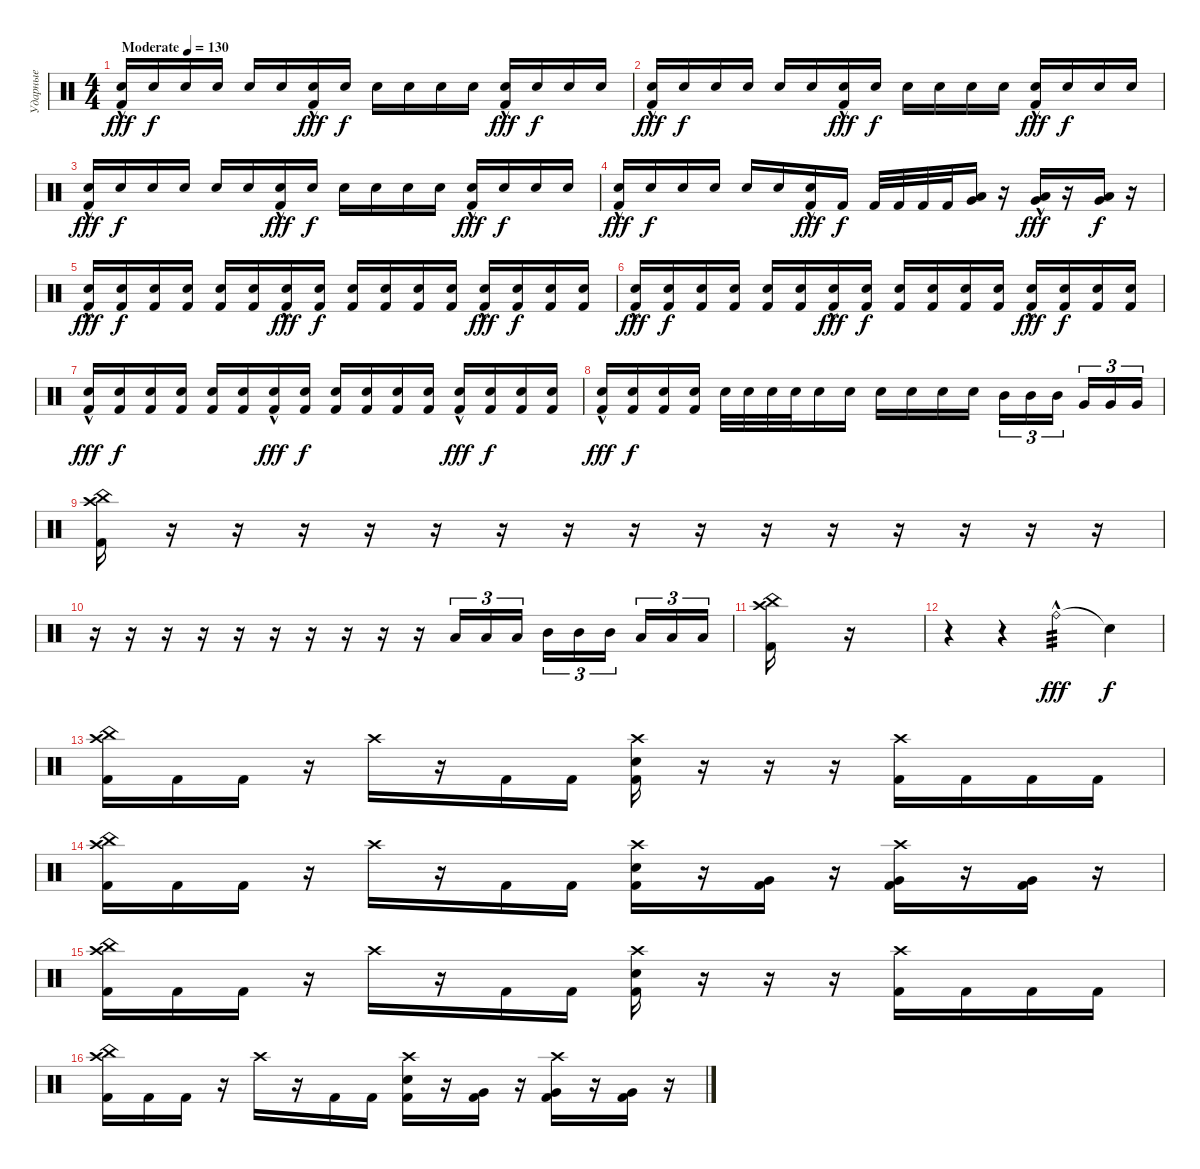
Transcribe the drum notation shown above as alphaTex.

\track ("Ударные" "Ударные") {instrument percussion}
\staff {score}
\articulation defaults
\ts (4 4)
\tempo (130 "Moderate")
\clef neutral
\ks c
("Snare (hit) 2"{hac} "Kick (hit) 2").16{dy fff} "Snare (hit) 2".16{dy f} "Snare (hit) 2".16 "Snare (hit) 2".16 "Snare (hit) 2".16 "Snare (hit) 2".16 ("Snare (hit) 2"{hac} "Kick (hit) 2").16{dy fff} "Snare (hit) 2".16{dy f} "Snare (hit) 2".16 "Snare (hit) 2".16 "Snare (hit) 2".16 "Snare (hit) 2".16 ("Snare (hit) 2"{hac} "Kick (hit) 2").16{dy fff} "Snare (hit) 2".16{dy f} "Snare (hit) 2".16 "Snare (hit) 2".16 |
("Snare (hit) 2"{hac} "Kick (hit) 2").16{dy fff} "Snare (hit) 2".16{dy f} "Snare (hit) 2".16 "Snare (hit) 2".16 "Snare (hit) 2".16 "Snare (hit) 2".16 ("Snare (hit) 2"{hac} "Kick (hit) 2").16{dy fff} "Snare (hit) 2".16{dy f} "Snare (hit) 2".16 "Snare (hit) 2".16 "Snare (hit) 2".16 "Snare (hit) 2".16 ("Snare (hit) 2"{hac} "Kick (hit) 2").16{dy fff} "Snare (hit) 2".16{dy f} "Snare (hit) 2".16 "Snare (hit) 2".16 |
("Snare (hit) 2"{hac} "Kick (hit) 2").16{dy fff} "Snare (hit) 2".16{dy f} "Snare (hit) 2".16 "Snare (hit) 2".16 "Snare (hit) 2".16 "Snare (hit) 2".16 ("Snare (hit) 2"{hac} "Kick (hit) 2").16{dy fff} "Snare (hit) 2".16{dy f} "Snare (hit) 2".16 "Snare (hit) 2".16 "Snare (hit) 2".16 "Snare (hit) 2".16 ("Snare (hit) 2"{hac} "Kick (hit) 2").16{dy fff} "Snare (hit) 2".16{dy f} "Snare (hit) 2".16 "Snare (hit) 2".16 |
("Snare (hit) 2"{hac} "Kick (hit) 2").16{dy fff} "Snare (hit) 2".16{dy f} "Snare (hit) 2".16 "Snare (hit) 2".16 "Snare (hit) 2".16 "Snare (hit) 2".16 ("Snare (hit) 2"{hac} "Kick (hit) 2").16{dy fff} "Kick (hit) 2".16{dy f} "Kick (hit) 2".32 "Kick (hit) 2".32 "Kick (hit) 2".32 "Kick (hit) 2".32 ("Low Tom (hit)" "Very Low Tom (hit)").16 r.16 ("Low Tom (hit)"{hac} "Very Low Tom (hit)").16{dy fff} r.16 ("Low Tom (hit)" "Very Low Tom (hit)").16{dy f} r.16 |
("Snare (hit) 2"{hac} "Kick (hit) 2").16{dy fff} ("Snare (hit) 2" "Kick (hit) 2").16{dy f} ("Snare (hit) 2" "Kick (hit) 2").16 ("Snare (hit) 2" "Kick (hit) 2").16 ("Snare (hit) 2" "Kick (hit) 2").16 ("Snare (hit) 2" "Kick (hit) 2").16 ("Snare (hit) 2"{hac} "Kick (hit) 2").16{dy fff} ("Snare (hit) 2" "Kick (hit) 2").16{dy f} ("Snare (hit) 2" "Kick (hit) 2").16 ("Snare (hit) 2" "Kick (hit) 2").16 ("Snare (hit) 2" "Kick (hit) 2").16 ("Snare (hit) 2" "Kick (hit) 2").16 ("Snare (hit) 2"{hac} "Kick (hit) 2").16{dy fff} ("Snare (hit) 2" "Kick (hit) 2").16{dy f} ("Snare (hit) 2" "Kick (hit) 2").16 ("Snare (hit) 2" "Kick (hit) 2").16 |
("Snare (hit) 2"{hac} "Kick (hit) 2").16{dy fff} ("Snare (hit) 2" "Kick (hit) 2").16{dy f} ("Snare (hit) 2" "Kick (hit) 2").16 ("Snare (hit) 2" "Kick (hit) 2").16 ("Snare (hit) 2" "Kick (hit) 2").16 ("Snare (hit) 2" "Kick (hit) 2").16 ("Snare (hit) 2"{hac} "Kick (hit) 2").16{dy fff} ("Snare (hit) 2" "Kick (hit) 2").16{dy f} ("Snare (hit) 2" "Kick (hit) 2").16 ("Snare (hit) 2" "Kick (hit) 2").16 ("Snare (hit) 2" "Kick (hit) 2").16 ("Snare (hit) 2" "Kick (hit) 2").16 ("Snare (hit) 2"{hac} "Kick (hit) 2").16{dy fff} ("Snare (hit) 2" "Kick (hit) 2").16{dy f} ("Snare (hit) 2" "Kick (hit) 2").16 ("Snare (hit) 2" "Kick (hit) 2").16 |
("Snare (hit) 2"{hac} "Kick (hit) 2").16{dy fff} ("Snare (hit) 2" "Kick (hit) 2").16{dy f} ("Snare (hit) 2" "Kick (hit) 2").16 ("Snare (hit) 2" "Kick (hit) 2").16 ("Snare (hit) 2" "Kick (hit) 2").16 ("Snare (hit) 2" "Kick (hit) 2").16 ("Snare (hit) 2"{hac} "Kick (hit) 2").16{dy fff} ("Snare (hit) 2" "Kick (hit) 2").16{dy f} ("Snare (hit) 2" "Kick (hit) 2").16 ("Snare (hit) 2" "Kick (hit) 2").16 ("Snare (hit) 2" "Kick (hit) 2").16 ("Snare (hit) 2" "Kick (hit) 2").16 ("Snare (hit) 2"{hac} "Kick (hit) 2").16{dy fff} ("Snare (hit) 2" "Kick (hit) 2").16{dy f} ("Snare (hit) 2" "Kick (hit) 2").16 ("Snare (hit) 2" "Kick (hit) 2").16 |
("Snare (hit) 2"{hac} "Kick (hit) 2").16{dy fff} ("Snare (hit) 2" "Kick (hit) 2").16{dy f} ("Snare (hit) 2" "Kick (hit) 2").16 ("Snare (hit) 2" "Kick (hit) 2").16 "Snare (hit) 2".32 "Snare (hit) 2".32 "Snare (hit) 2".32 "Snare (hit) 2".32 "Snare (hit) 2".16 "Snare (hit) 2".16 "Snare (hit) 2".16 "Snare (hit) 2".16 "Snare (hit) 2".16 "Snare (hit) 2".16 "Mid Tom (hit)".16{tu (3 2)} "Mid Tom (hit)".16{tu (3 2)} "Mid Tom (hit)".16{tu (3 2) beam splitsecondary} "Very Low Tom (hit)".16{tu (3 2)} "Very Low Tom (hit)".16{tu (3 2)} "Very Low Tom (hit)".16{tu (3 2)} |
("Crash high (hit)" "China (hit)" "Kick (hit) 2").16 r.16 r.16 r.16 r.16 r.16 r.16 r.16 r.16 r.16 r.16 r.16 r.16 r.16 r.16 r.16 |
r.16 r.16 r.16 r.16 r.16 r.16 r.16 r.16 r.16 r.16 "Low Tom (hit)".16{tu (3 2)} "Low Tom (hit)".16{tu (3 2)} "Low Tom (hit)".16{tu (3 2)} "Mid Tom (hit)".16{tu (3 2)} "Mid Tom (hit)".16{tu (3 2)} "Mid Tom (hit)".16{tu (3 2) beam splitsecondary} "Low Tom (hit)".16{tu (3 2)} "Low Tom (hit)".16{tu (3 2)} "Low Tom (hit)".16{tu (3 2)} |
("Crash high (hit)" "China (hit)" "Kick (hit) 2").16 r.16 |
r.4 r.4 "Ride (bell)"{hac}.4{tp 3 dy fff volume 6} "Snare (hit)"{t}.4{dy f volume 13} |
("Crash high (hit)" "China (hit)" "Kick (hit) 2").16 "Kick (hit) 2".16 "Kick (hit) 2".16 r.16 "Crash high (hit)".16 r.16 "Kick (hit) 2".16 "Kick (hit) 2".16 ("Crash high (hit)" "Snare (hit) 2" "Kick (hit) 2").16 r.16 r.16 r.16 ("Crash high (hit)" "Kick (hit) 2").16 "Kick (hit) 2".16 "Kick (hit) 2".16 "Kick (hit) 2".16 |
("Crash high (hit)" "China (hit)" "Kick (hit) 2").16 "Kick (hit) 2".16 "Kick (hit) 2".16 r.16 "Crash high (hit)".16 r.16 "Kick (hit) 2".16 "Kick (hit) 2".16 ("Crash high (hit)" "Snare (hit) 2" "Kick (hit) 2").16 r.16 ("Very Low Tom (hit)" "Kick (hit) 2").16 r.16 ("Crash high (hit)" "Very Low Tom (hit)" "Kick (hit) 2").16 r.16 ("Very Low Tom (hit)" "Kick (hit) 2").16 r.16 |
("Crash high (hit)" "China (hit)" "Kick (hit) 2").16 "Kick (hit) 2".16 "Kick (hit) 2".16 r.16 "Crash high (hit)".16 r.16 "Kick (hit) 2".16 "Kick (hit) 2".16 ("Crash high (hit)" "Snare (hit) 2" "Kick (hit) 2").16 r.16 r.16 r.16 ("Crash high (hit)" "Kick (hit) 2").16 "Kick (hit) 2".16 "Kick (hit) 2".16 "Kick (hit) 2".16 |
("Crash high (hit)" "China (hit)" "Kick (hit) 2").16 "Kick (hit) 2".16 "Kick (hit) 2".16 r.16 "Crash high (hit)".16 r.16 "Kick (hit) 2".16 "Kick (hit) 2".16 ("Crash high (hit)" "Snare (hit) 2" "Kick (hit) 2").16 r.16 ("Very Low Tom (hit)" "Kick (hit) 2").16 r.16 ("Crash high (hit)" "Very Low Tom (hit)" "Kick (hit) 2").16 r.16 ("Very Low Tom (hit)" "Kick (hit) 2").16 r.16
